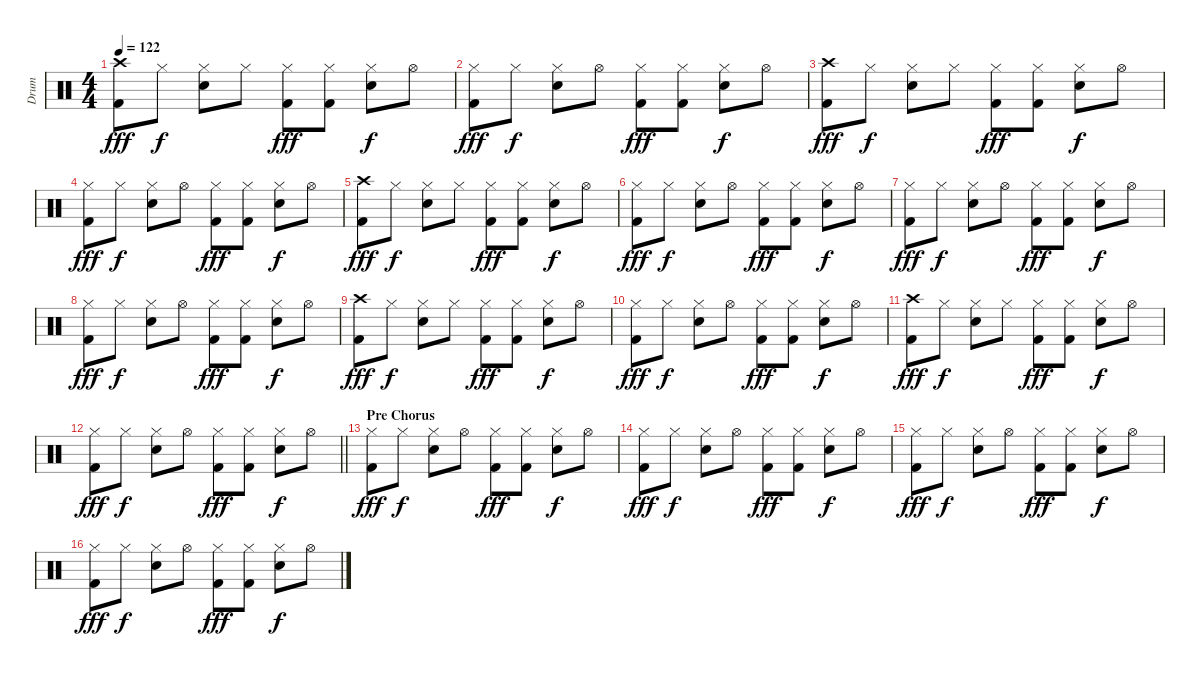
\track ("Drum" "Drum") {instrument percussion}
\staff {score}
\articulation defaults
\ts (4 4)
\tempo 122
\clef neutral
\ks c
("Crash high (hit)" "Kick (hit) 2").8{dy fff} "Hi-Hat (closed)".8{dy f} ("Hi-Hat (closed)" "Electric Snare (hit)").8 "Hi-Hat (closed)".8 ("Hi-Hat (closed)" "Kick (hit) 2").8{dy fff} ("Hi-Hat (closed)" "Kick (hit) 2").8 ("Hi-Hat (closed)" "Electric Snare (hit)").8{dy f} "Hi-Hat (open)".8 |
("Hi-Hat (closed)" "Kick (hit) 2").8{dy fff} "Hi-Hat (closed)".8{dy f} ("Hi-Hat (closed)" "Electric Snare (hit)").8 "Hi-Hat (open)".8 ("Hi-Hat (closed)" "Kick (hit) 2").8{dy fff} ("Hi-Hat (closed)" "Kick (hit) 2").8 ("Hi-Hat (closed)" "Electric Snare (hit)").8{dy f} "Hi-Hat (open)".8 |
("Crash high (hit)" "Kick (hit) 2").8{dy fff} "Hi-Hat (closed)".8{dy f} ("Hi-Hat (closed)" "Electric Snare (hit)").8 "Hi-Hat (closed)".8 ("Hi-Hat (closed)" "Kick (hit) 2").8{dy fff} ("Hi-Hat (closed)" "Kick (hit) 2").8 ("Hi-Hat (closed)" "Electric Snare (hit)").8{dy f} "Hi-Hat (open)".8 |
("Hi-Hat (closed)" "Kick (hit) 2").8{dy fff} "Hi-Hat (closed)".8{dy f} ("Hi-Hat (closed)" "Electric Snare (hit)").8 "Hi-Hat (open)".8 ("Hi-Hat (closed)" "Kick (hit) 2").8{dy fff} ("Hi-Hat (closed)" "Kick (hit) 2").8 ("Hi-Hat (closed)" "Electric Snare (hit)").8{dy f} "Hi-Hat (open)".8 |
("Crash high (hit)" "Kick (hit) 2").8{dy fff} "Hi-Hat (closed)".8{dy f} ("Hi-Hat (closed)" "Electric Snare (hit)").8 "Hi-Hat (closed)".8 ("Hi-Hat (closed)" "Kick (hit) 2").8{dy fff} ("Hi-Hat (closed)" "Kick (hit) 2").8 ("Hi-Hat (closed)" "Electric Snare (hit)").8{dy f} "Hi-Hat (open)".8 |
("Hi-Hat (closed)" "Kick (hit) 2").8{dy fff} "Hi-Hat (closed)".8{dy f} ("Hi-Hat (closed)" "Electric Snare (hit)").8 "Hi-Hat (open)".8 ("Hi-Hat (closed)" "Kick (hit) 2").8{dy fff} ("Hi-Hat (closed)" "Kick (hit) 2").8 ("Hi-Hat (closed)" "Electric Snare (hit)").8{dy f} "Hi-Hat (open)".8 |
("Hi-Hat (closed)" "Kick (hit) 2").8{dy fff} "Hi-Hat (closed)".8{dy f} ("Hi-Hat (closed)" "Electric Snare (hit)").8 "Hi-Hat (open)".8 ("Hi-Hat (closed)" "Kick (hit) 2").8{dy fff} ("Hi-Hat (closed)" "Kick (hit) 2").8 ("Hi-Hat (closed)" "Electric Snare (hit)").8{dy f} "Hi-Hat (open)".8 |
("Hi-Hat (closed)" "Kick (hit) 2").8{dy fff} "Hi-Hat (closed)".8{dy f} ("Hi-Hat (closed)" "Electric Snare (hit)").8 "Hi-Hat (open)".8 ("Hi-Hat (closed)" "Kick (hit) 2").8{dy fff} ("Hi-Hat (closed)" "Kick (hit) 2").8 ("Hi-Hat (closed)" "Electric Snare (hit)").8{dy f} "Hi-Hat (open)".8 |
("Crash high (hit)" "Kick (hit) 2").8{dy fff} "Hi-Hat (closed)".8{dy f} ("Hi-Hat (closed)" "Electric Snare (hit)").8 "Hi-Hat (closed)".8 ("Hi-Hat (closed)" "Kick (hit) 2").8{dy fff} ("Hi-Hat (closed)" "Kick (hit) 2").8 ("Hi-Hat (closed)" "Electric Snare (hit)").8{dy f} "Hi-Hat (open)".8 |
("Hi-Hat (closed)" "Kick (hit) 2").8{dy fff} "Hi-Hat (closed)".8{dy f} ("Hi-Hat (closed)" "Electric Snare (hit)").8 "Hi-Hat (open)".8 ("Hi-Hat (closed)" "Kick (hit) 2").8{dy fff} ("Hi-Hat (closed)" "Kick (hit) 2").8 ("Hi-Hat (closed)" "Electric Snare (hit)").8{dy f} "Hi-Hat (open)".8 |
("Crash high (hit)" "Kick (hit) 2").8{dy fff} "Hi-Hat (closed)".8{dy f} ("Hi-Hat (closed)" "Electric Snare (hit)").8 "Hi-Hat (closed)".8 ("Hi-Hat (closed)" "Kick (hit) 2").8{dy fff} ("Hi-Hat (closed)" "Kick (hit) 2").8 ("Hi-Hat (closed)" "Electric Snare (hit)").8{dy f} "Hi-Hat (open)".8 |
\barLineRight lightlight
("Hi-Hat (closed)" "Kick (hit) 2").8{dy fff} "Hi-Hat (closed)".8{dy f} ("Hi-Hat (closed)" "Electric Snare (hit)").8 "Hi-Hat (open)".8 ("Hi-Hat (closed)" "Kick (hit) 2").8{dy fff} ("Hi-Hat (closed)" "Kick (hit) 2").8 ("Hi-Hat (closed)" "Electric Snare (hit)").8{dy f} "Hi-Hat (open)".8 |
\section ("" "Pre Chorus")
("Hi-Hat (closed)" "Kick (hit) 2").8{dy fff} "Hi-Hat (closed)".8{dy f} ("Hi-Hat (closed)" "Electric Snare (hit)").8 "Hi-Hat (open)".8 ("Hi-Hat (closed)" "Kick (hit) 2").8{dy fff} ("Hi-Hat (closed)" "Kick (hit) 2").8 ("Hi-Hat (closed)" "Electric Snare (hit)").8{dy f} "Hi-Hat (open)".8 |
("Hi-Hat (closed)" "Kick (hit) 2").8{dy fff} "Hi-Hat (closed)".8{dy f} ("Hi-Hat (closed)" "Electric Snare (hit)").8 "Hi-Hat (open)".8 ("Hi-Hat (closed)" "Kick (hit) 2").8{dy fff} ("Hi-Hat (closed)" "Kick (hit) 2").8 ("Hi-Hat (closed)" "Electric Snare (hit)").8{dy f} "Hi-Hat (open)".8 |
("Hi-Hat (closed)" "Kick (hit) 2").8{dy fff} "Hi-Hat (closed)".8{dy f} ("Hi-Hat (closed)" "Electric Snare (hit)").8 "Hi-Hat (open)".8 ("Hi-Hat (closed)" "Kick (hit) 2").8{dy fff} ("Hi-Hat (closed)" "Kick (hit) 2").8 ("Hi-Hat (closed)" "Electric Snare (hit)").8{dy f} "Hi-Hat (open)".8 |
("Hi-Hat (closed)" "Kick (hit) 2").8{dy fff} "Hi-Hat (closed)".8{dy f} ("Hi-Hat (closed)" "Electric Snare (hit)").8 "Hi-Hat (open)".8 ("Hi-Hat (closed)" "Kick (hit) 2").8{dy fff} ("Hi-Hat (closed)" "Kick (hit) 2").8 ("Hi-Hat (closed)" "Electric Snare (hit)").8{dy f} "Hi-Hat (open)".8
